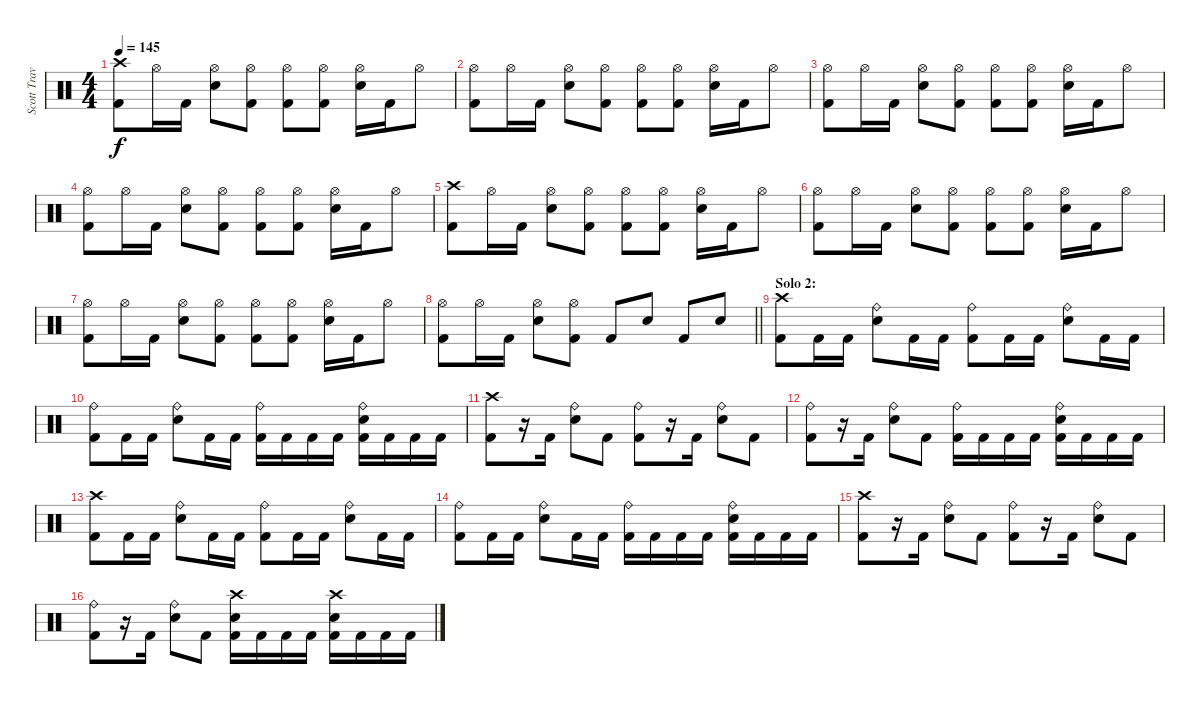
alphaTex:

\track ("Scott Travis" "Scott Trav") {instrument percussion}
\staff {score}
\articulation defaults
\ts (4 4)
\tempo 145
\clef neutral
\ks c
("Crash high (hit)" "Kick (hit) 2").8{dy f} "Hi-Hat (open)".16 "Kick (hit) 2".16 ("Hi-Hat (open)" "Snare (hit) 2").8 ("Hi-Hat (open)" "Kick (hit) 2").8 ("Hi-Hat (open)" "Kick (hit) 2").8 ("Hi-Hat (open)" "Kick (hit) 2").8 ("Hi-Hat (open)" "Snare (hit) 2").16 "Kick (hit) 2".16 "Hi-Hat (open)".8 |
("Hi-Hat (open)" "Kick (hit) 2").8 "Hi-Hat (open)".16 "Kick (hit) 2".16 ("Hi-Hat (open)" "Snare (hit) 2").8 ("Hi-Hat (open)" "Kick (hit) 2").8 ("Hi-Hat (open)" "Kick (hit) 2").8 ("Hi-Hat (open)" "Kick (hit) 2").8 ("Hi-Hat (open)" "Snare (hit) 2").16 "Kick (hit) 2".16 "Hi-Hat (open)".8 |
("Hi-Hat (open)" "Kick (hit) 2").8 "Hi-Hat (open)".16 "Kick (hit) 2".16 ("Hi-Hat (open)" "Snare (hit) 2").8 ("Hi-Hat (open)" "Kick (hit) 2").8 ("Hi-Hat (open)" "Kick (hit) 2").8 ("Hi-Hat (open)" "Kick (hit) 2").8 ("Hi-Hat (open)" "Snare (hit) 2").16 "Kick (hit) 2".16 "Hi-Hat (open)".8 |
("Hi-Hat (open)" "Kick (hit) 2").8 "Hi-Hat (open)".16 "Kick (hit) 2".16 ("Hi-Hat (open)" "Snare (hit) 2").8 ("Hi-Hat (open)" "Kick (hit) 2").8 ("Hi-Hat (open)" "Kick (hit) 2").8 ("Hi-Hat (open)" "Kick (hit) 2").8 ("Hi-Hat (open)" "Snare (hit) 2").16 "Kick (hit) 2".16 "Hi-Hat (open)".8 |
("Crash high (hit)" "Kick (hit) 2").8 "Hi-Hat (open)".16 "Kick (hit) 2".16 ("Hi-Hat (open)" "Snare (hit) 2").8 ("Hi-Hat (open)" "Kick (hit) 2").8 ("Hi-Hat (open)" "Kick (hit) 2").8 ("Hi-Hat (open)" "Kick (hit) 2").8 ("Hi-Hat (open)" "Snare (hit) 2").16 "Kick (hit) 2".16 "Hi-Hat (open)".8 |
("Hi-Hat (open)" "Kick (hit) 2").8 "Hi-Hat (open)".16 "Kick (hit) 2".16 ("Hi-Hat (open)" "Snare (hit) 2").8 ("Hi-Hat (open)" "Kick (hit) 2").8 ("Hi-Hat (open)" "Kick (hit) 2").8 ("Hi-Hat (open)" "Kick (hit) 2").8 ("Hi-Hat (open)" "Snare (hit) 2").16 "Kick (hit) 2".16 "Hi-Hat (open)".8 |
("Hi-Hat (open)" "Kick (hit) 2").8 "Hi-Hat (open)".16 "Kick (hit) 2".16 ("Hi-Hat (open)" "Snare (hit) 2").8 ("Hi-Hat (open)" "Kick (hit) 2").8 ("Hi-Hat (open)" "Kick (hit) 2").8 ("Hi-Hat (open)" "Kick (hit) 2").8 ("Hi-Hat (open)" "Snare (hit) 2").16 "Kick (hit) 2".16 "Hi-Hat (open)".8 |
\barLineRight lightlight
("Hi-Hat (open)" "Kick (hit) 2").8 "Hi-Hat (open)".16 "Kick (hit) 2".16 ("Hi-Hat (open)" "Snare (hit) 2").8 ("Hi-Hat (open)" "Kick (hit) 2").8 "Kick (hit) 2".8 "Snare (hit) 2".8 "Kick (hit) 2".8 "Snare (hit) 2".8 |
\section ("" "Solo 2:")
("Crash high (hit)" "Kick (hit) 2").8 "Kick (hit) 2".16 "Kick (hit) 2".16 ("Ride (bell)" "Snare (hit) 2").8 "Kick (hit) 2".16 "Kick (hit) 2".16 ("Ride (bell)" "Kick (hit) 2").8 "Kick (hit) 2".16 "Kick (hit) 2".16 ("Ride (bell)" "Snare (hit) 2").8 "Kick (hit) 2".16 "Kick (hit) 2".16 |
("Ride (bell)" "Kick (hit) 2").8 "Kick (hit) 2".16 "Kick (hit) 2".16 ("Ride (bell)" "Snare (hit) 2").8 "Kick (hit) 2".16 "Kick (hit) 2".16 ("Ride (bell)" "Kick (hit) 2").16 "Kick (hit) 2".16 "Kick (hit) 2".16 "Kick (hit) 2".16 ("Ride (bell)" "Snare (hit) 2" "Kick (hit) 2").16 "Kick (hit) 2".16 "Kick (hit) 2".16 "Kick (hit) 2".16 |
("Crash high (hit)" "Kick (hit) 2").8 r.16 "Kick (hit) 2".16 ("Ride (bell)" "Snare (hit) 2").8 "Kick (hit) 2".8 ("Ride (bell)" "Kick (hit) 2").8 r.16 "Kick (hit) 2".16 ("Ride (bell)" "Snare (hit) 2").8 "Kick (hit) 2".8 |
("Ride (bell)" "Kick (hit) 2").8 r.16 "Kick (hit) 2".16 ("Ride (bell)" "Snare (hit) 2").8 "Kick (hit) 2".8 ("Ride (bell)" "Kick (hit) 2").16 "Kick (hit) 2".16 "Kick (hit) 2".16 "Kick (hit) 2".16 ("Ride (bell)" "Snare (hit) 2" "Kick (hit) 2").16 "Kick (hit) 2".16 "Kick (hit) 2".16 "Kick (hit) 2".16 |
("Crash high (hit)" "Kick (hit) 2").8 "Kick (hit) 2".16 "Kick (hit) 2".16 ("Ride (bell)" "Snare (hit) 2").8 "Kick (hit) 2".16 "Kick (hit) 2".16 ("Ride (bell)" "Kick (hit) 2").8 "Kick (hit) 2".16 "Kick (hit) 2".16 ("Ride (bell)" "Snare (hit) 2").8 "Kick (hit) 2".16 "Kick (hit) 2".16 |
("Ride (bell)" "Kick (hit) 2").8 "Kick (hit) 2".16 "Kick (hit) 2".16 ("Ride (bell)" "Snare (hit) 2").8 "Kick (hit) 2".16 "Kick (hit) 2".16 ("Ride (bell)" "Kick (hit) 2").16 "Kick (hit) 2".16 "Kick (hit) 2".16 "Kick (hit) 2".16 ("Ride (bell)" "Snare (hit) 2" "Kick (hit) 2").16 "Kick (hit) 2".16 "Kick (hit) 2".16 "Kick (hit) 2".16 |
("Crash high (hit)" "Kick (hit) 2").8 r.16 "Kick (hit) 2".16 ("Ride (bell)" "Snare (hit) 2").8 "Kick (hit) 2".8 ("Ride (bell)" "Kick (hit) 2").8 r.16 "Kick (hit) 2".16 ("Ride (bell)" "Snare (hit) 2").8 "Kick (hit) 2".8 |
("Ride (bell)" "Kick (hit) 2").8 r.16 "Kick (hit) 2".16 ("Ride (bell)" "Snare (hit) 2").8 "Kick (hit) 2".8 ("Crash high (hit)" "Snare (hit) 2" "Kick (hit) 2").16 "Kick (hit) 2".16 "Kick (hit) 2".16 "Kick (hit) 2".16 ("Crash high (hit)" "Snare (hit) 2" "Kick (hit) 2").16 "Kick (hit) 2".16 "Kick (hit) 2".16 "Kick (hit) 2".16
